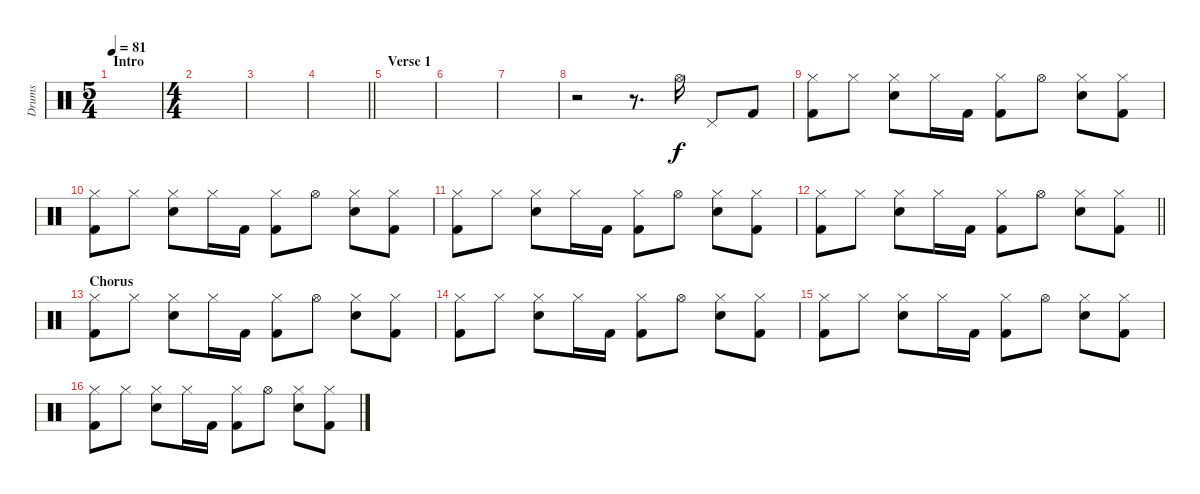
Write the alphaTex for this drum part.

\track ("Drums" "Drums") {instrument percussion}
\staff {score}
\articulation defaults
\ts (5 4)
\section ("" "Intro")
\tempo 81
\clef neutral
\ks c
|
\ts (4 4)
|
|
\barLineRight lightlight
|
\section ("" "Verse 1")
|
|
|
r.2 r.8{d} "Hi-Hat (open)".16 "Pedal Hi-Hat (hit)".8 "Kick (hit) 2".8 |
("Hi-Hat (closed)" "Kick (hit) 2").8 "Hi-Hat (closed)".8 ("Hi-Hat (closed)" "Snare (hit) 2").8 "Hi-Hat (closed)".16 "Kick (hit) 2".16 ("Hi-Hat (closed)" "Kick (hit) 2").8 "Hi-Hat (open)".8 ("Hi-Hat (closed)" "Snare (hit) 2").8 ("Hi-Hat (closed)" "Kick (hit) 2").8 |
("Hi-Hat (closed)" "Kick (hit) 2").8 "Hi-Hat (closed)".8 ("Hi-Hat (closed)" "Snare (hit) 2").8 "Hi-Hat (closed)".16 "Kick (hit) 2".16 ("Hi-Hat (closed)" "Kick (hit) 2").8 "Hi-Hat (open)".8 ("Hi-Hat (closed)" "Snare (hit) 2").8 ("Hi-Hat (closed)" "Kick (hit) 2").8 |
("Hi-Hat (closed)" "Kick (hit) 2").8 "Hi-Hat (closed)".8 ("Hi-Hat (closed)" "Snare (hit) 2").8 "Hi-Hat (closed)".16 "Kick (hit) 2".16 ("Hi-Hat (closed)" "Kick (hit) 2").8 "Hi-Hat (open)".8 ("Hi-Hat (closed)" "Snare (hit) 2").8 ("Hi-Hat (closed)" "Kick (hit) 2").8 |
\barLineRight lightlight
("Hi-Hat (closed)" "Kick (hit) 2").8 "Hi-Hat (closed)".8 ("Hi-Hat (closed)" "Snare (hit) 2").8 "Hi-Hat (closed)".16 "Kick (hit) 2".16 ("Hi-Hat (closed)" "Kick (hit) 2").8 "Hi-Hat (open)".8 ("Hi-Hat (closed)" "Snare (hit) 2").8 ("Hi-Hat (closed)" "Kick (hit) 2").8 |
\section ("" "Chorus")
("Hi-Hat (closed)" "Kick (hit) 2").8 "Hi-Hat (closed)".8 ("Hi-Hat (closed)" "Snare (hit) 2").8 "Hi-Hat (closed)".16 "Kick (hit) 2".16 ("Hi-Hat (closed)" "Kick (hit) 2").8 "Hi-Hat (open)".8 ("Hi-Hat (closed)" "Snare (hit) 2").8 ("Hi-Hat (closed)" "Kick (hit) 2").8 |
("Hi-Hat (closed)" "Kick (hit) 2").8 "Hi-Hat (closed)".8 ("Hi-Hat (closed)" "Snare (hit) 2").8 "Hi-Hat (closed)".16 "Kick (hit) 2".16 ("Hi-Hat (closed)" "Kick (hit) 2").8 "Hi-Hat (open)".8 ("Hi-Hat (closed)" "Snare (hit) 2").8 ("Hi-Hat (closed)" "Kick (hit) 2").8 |
("Hi-Hat (closed)" "Kick (hit) 2").8 "Hi-Hat (closed)".8 ("Hi-Hat (closed)" "Snare (hit) 2").8 "Hi-Hat (closed)".16 "Kick (hit) 2".16 ("Hi-Hat (closed)" "Kick (hit) 2").8 "Hi-Hat (open)".8 ("Hi-Hat (closed)" "Snare (hit) 2").8 ("Hi-Hat (closed)" "Kick (hit) 2").8 |
("Hi-Hat (closed)" "Kick (hit) 2").8 "Hi-Hat (closed)".8 ("Hi-Hat (closed)" "Snare (hit) 2").8 "Hi-Hat (closed)".16 "Kick (hit) 2".16 ("Hi-Hat (closed)" "Kick (hit) 2").8 "Hi-Hat (open)".8 ("Hi-Hat (closed)" "Snare (hit) 2").8 ("Hi-Hat (closed)" "Kick (hit) 2").8
